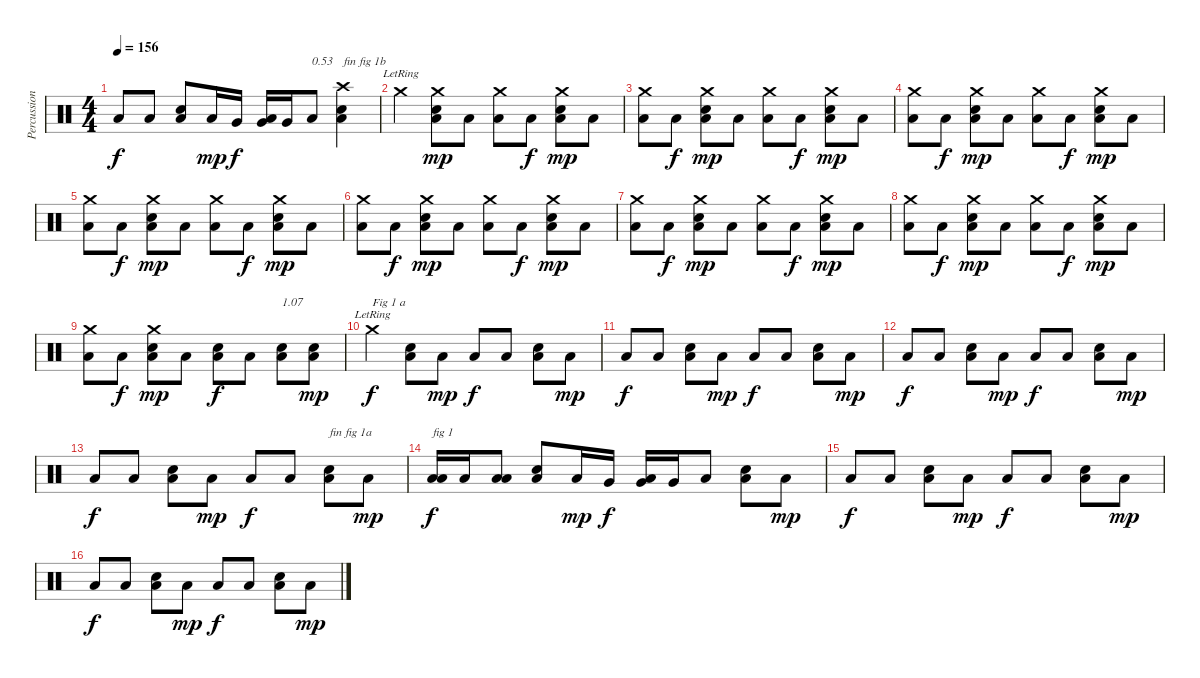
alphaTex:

\track ("Percussions" "Percussion") {instrument percussion}
\staff {score}
\articulation defaults
\ts (4 4)
\tempo 156
\clef neutral
\ks c "Low Floor Tom (hit)".8{dy f} "Low Floor Tom (hit)".8
("Low Floor Tom (hit)" "Snare (hit) 2").8 "Low Floor Tom (hit)".16{dy mp} "Very Low Tom (hit)".16{dy f} ("Low Floor Tom (hit)" "Very Low Tom (hit)").16 "Very Low Tom (hit)".16 "Low Floor Tom (hit)".8{txt "0.53"} ("Low Floor Tom (hit)" "Snare (hit) 2" "Crash high (hit)").4{txt "fin fig 1b"} |
"Crash medium (hit)"{lr}.4 ("Low Floor Tom (hit)" "Snare (hit) 2" "Crash medium (hit)").8{dy mp} "Low Floor Tom (hit)".8 ("Low Floor Tom (hit)" "Crash medium (hit)").8 "Low Floor Tom (hit)".8{dy f} ("Low Floor Tom (hit)" "Snare (hit) 2" "Crash medium (hit)").8{dy mp} "Low Floor Tom (hit)".8 |
("Low Floor Tom (hit)" "Crash medium (hit)").8 "Low Floor Tom (hit)".8{dy f} ("Low Floor Tom (hit)" "Snare (hit) 2" "Crash medium (hit)").8{dy mp} "Low Floor Tom (hit)".8 ("Low Floor Tom (hit)" "Crash medium (hit)").8 "Low Floor Tom (hit)".8{dy f} ("Low Floor Tom (hit)" "Snare (hit) 2" "Crash medium (hit)").8{dy mp} "Low Floor Tom (hit)".8 |
("Low Floor Tom (hit)" "Crash medium (hit)").8 "Low Floor Tom (hit)".8{dy f} ("Low Floor Tom (hit)" "Snare (hit) 2" "Crash medium (hit)").8{dy mp} "Low Floor Tom (hit)".8 ("Low Floor Tom (hit)" "Crash medium (hit)").8 "Low Floor Tom (hit)".8{dy f} ("Low Floor Tom (hit)" "Snare (hit) 2" "Crash medium (hit)").8{dy mp} "Low Floor Tom (hit)".8 |
("Low Floor Tom (hit)" "Crash medium (hit)").8 "Low Floor Tom (hit)".8{dy f} ("Low Floor Tom (hit)" "Snare (hit) 2" "Crash medium (hit)").8{dy mp} "Low Floor Tom (hit)".8 ("Low Floor Tom (hit)" "Crash medium (hit)").8 "Low Floor Tom (hit)".8{dy f} ("Low Floor Tom (hit)" "Snare (hit) 2" "Crash medium (hit)").8{dy mp} "Low Floor Tom (hit)".8 |
("Low Floor Tom (hit)" "Crash medium (hit)").8 "Low Floor Tom (hit)".8{dy f} ("Low Floor Tom (hit)" "Snare (hit) 2" "Crash medium (hit)").8{dy mp} "Low Floor Tom (hit)".8 ("Low Floor Tom (hit)" "Crash medium (hit)").8 "Low Floor Tom (hit)".8{dy f} ("Low Floor Tom (hit)" "Snare (hit) 2" "Crash medium (hit)").8{dy mp} "Low Floor Tom (hit)".8 |
("Low Floor Tom (hit)" "Crash medium (hit)").8 "Low Floor Tom (hit)".8{dy f} ("Low Floor Tom (hit)" "Snare (hit) 2" "Crash medium (hit)").8{dy mp} "Low Floor Tom (hit)".8 ("Low Floor Tom (hit)" "Crash medium (hit)").8 "Low Floor Tom (hit)".8{dy f} ("Low Floor Tom (hit)" "Snare (hit) 2" "Crash medium (hit)").8{dy mp} "Low Floor Tom (hit)".8 |
("Low Floor Tom (hit)" "Crash medium (hit)").8 "Low Floor Tom (hit)".8{dy f} ("Low Floor Tom (hit)" "Snare (hit) 2" "Crash medium (hit)").8{dy mp} "Low Floor Tom (hit)".8 ("Low Floor Tom (hit)" "Crash medium (hit)").8 "Low Floor Tom (hit)".8{dy f} ("Low Floor Tom (hit)" "Snare (hit) 2" "Crash medium (hit)").8{dy mp} "Low Floor Tom (hit)".8 |
("Low Floor Tom (hit)" "Crash medium (hit)").8 "Low Floor Tom (hit)".8{dy f} ("Low Floor Tom (hit)" "Snare (hit) 2" "Crash medium (hit)").8{dy mp} "Low Floor Tom (hit)".8 ("Low Floor Tom (hit)" "Snare (hit) 2").8{dy f} "Low Floor Tom (hit)".8 ("Low Floor Tom (hit)" "Snare (hit) 2").8{txt "1.07"} ("Low Floor Tom (hit)" "Snare (hit) 2").8{dy mp} |
"Crash medium (hit)"{lr}.4{txt "Fig 1 a" dy f} ("Low Floor Tom (hit)" "Snare (hit) 2").8 "Low Floor Tom (hit)".8{dy mp} "Low Floor Tom (hit)".8{dy f} "Low Floor Tom (hit)".8 ("Low Floor Tom (hit)" "Snare (hit) 2").8 "Low Floor Tom (hit)".8{dy mp} |
"Low Floor Tom (hit)".8{dy f} "Low Floor Tom (hit)".8 ("Low Floor Tom (hit)" "Snare (hit) 2").8 "Low Floor Tom (hit)".8{dy mp} "Low Floor Tom (hit)".8{dy f} "Low Floor Tom (hit)".8 ("Low Floor Tom (hit)" "Snare (hit) 2").8 "Low Floor Tom (hit)".8{dy mp} |
"Low Floor Tom (hit)".8{dy f} "Low Floor Tom (hit)".8 ("Low Floor Tom (hit)" "Snare (hit) 2").8 "Low Floor Tom (hit)".8{dy mp} "Low Floor Tom (hit)".8{dy f} "Low Floor Tom (hit)".8 ("Low Floor Tom (hit)" "Snare (hit) 2").8 "Low Floor Tom (hit)".8{dy mp} |
"Low Floor Tom (hit)".8{dy f} "Low Floor Tom (hit)".8 ("Low Floor Tom (hit)" "Snare (hit) 2").8 "Low Floor Tom (hit)".8{dy mp} "Low Floor Tom (hit)".8{dy f} "Low Floor Tom (hit)".8 ("Low Floor Tom (hit)" "Snare (hit) 2").8{txt "fin fig 1a"} "Low Floor Tom (hit)".8{dy mp} |
("Low Floor Tom (hit)" "Low Tom (hit)").16{txt "fig 1" dy f} "Low Tom (hit)".16 ("Low Floor Tom (hit)" "Low Tom (hit)").8 ("Low Floor Tom (hit)" "Snare (hit) 2").8 "Low Floor Tom (hit)".16{dy mp} "Very Low Tom (hit)".16{dy f} ("Low Floor Tom (hit)" "Very Low Tom (hit)").16 "Very Low Tom (hit)".16 "Low Floor Tom (hit)".8 ("Low Floor Tom (hit)" "Snare (hit) 2").8 "Low Floor Tom (hit)".8{dy mp} |
"Low Floor Tom (hit)".8{dy f} "Low Floor Tom (hit)".8 ("Low Floor Tom (hit)" "Snare (hit) 2").8 "Low Floor Tom (hit)".8{dy mp} "Low Floor Tom (hit)".8{dy f} "Low Floor Tom (hit)".8 ("Low Floor Tom (hit)" "Snare (hit) 2").8 "Low Floor Tom (hit)".8{dy mp} |
"Low Floor Tom (hit)".8{dy f} "Low Floor Tom (hit)".8 ("Low Floor Tom (hit)" "Snare (hit) 2").8 "Low Floor Tom (hit)".8{dy mp} "Low Floor Tom (hit)".8{dy f} "Low Floor Tom (hit)".8 ("Low Floor Tom (hit)" "Snare (hit) 2").8 "Low Floor Tom (hit)".8{dy mp}
